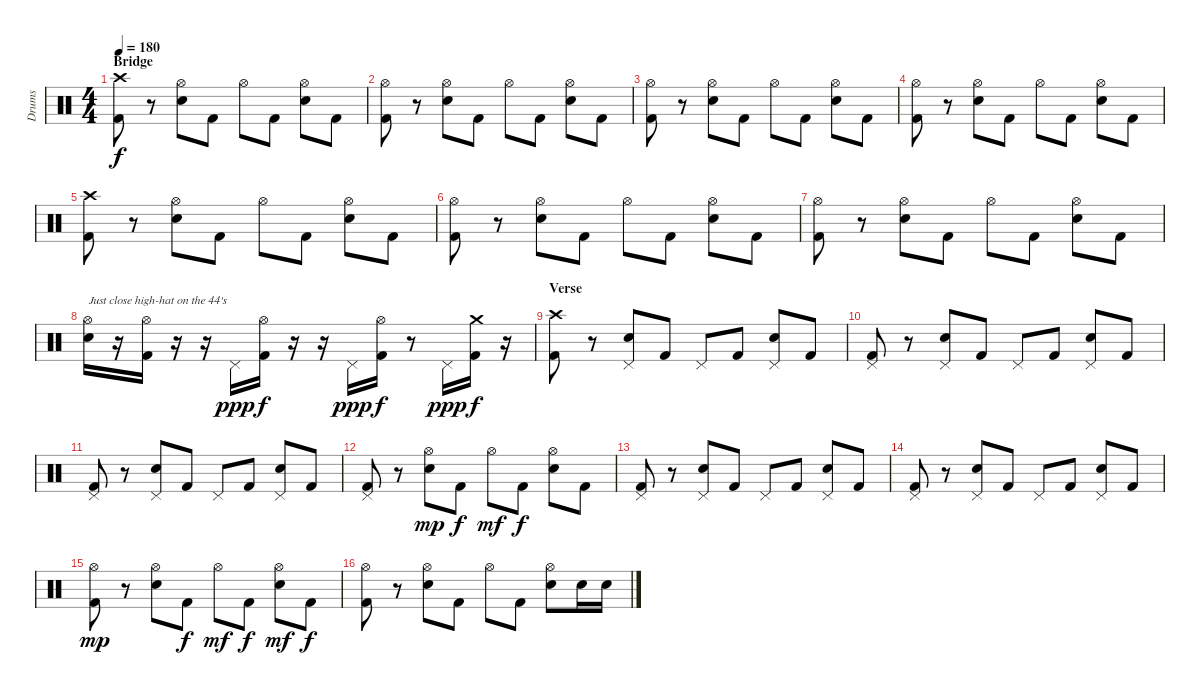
\track ("Drums" "Drums") {instrument percussion}
\staff {score}
\articulation defaults
\ts (4 4)
\section ("" "Bridge")
\tempo 180
\clef neutral
\ks c
("Crash high (hit)" "Kick (hit) 2").8{dy f} r.8 ("Hi-Hat (open)" "Electric Snare (hit)").8 "Kick (hit) 2".8 "Hi-Hat (open)".8 "Kick (hit) 2".8 ("Hi-Hat (open)" "Electric Snare (hit)").8 "Kick (hit) 2".8 |
("Hi-Hat (open)" "Kick (hit) 2").8 r.8 ("Hi-Hat (open)" "Electric Snare (hit)").8 "Kick (hit) 2".8 "Hi-Hat (open)".8 "Kick (hit) 2".8 ("Hi-Hat (open)" "Electric Snare (hit)").8 "Kick (hit) 2".8 |
("Hi-Hat (open)" "Kick (hit) 2").8 r.8 ("Hi-Hat (open)" "Electric Snare (hit)").8 "Kick (hit) 2".8 "Hi-Hat (open)".8 "Kick (hit) 2".8 ("Hi-Hat (open)" "Electric Snare (hit)").8 "Kick (hit) 2".8 |
("Hi-Hat (open)" "Kick (hit) 2").8 r.8 ("Hi-Hat (open)" "Electric Snare (hit)").8 "Kick (hit) 2".8 "Hi-Hat (open)".8 "Kick (hit) 2".8 ("Hi-Hat (open)" "Electric Snare (hit)").8 "Kick (hit) 2".8 |
("Crash high (hit)" "Kick (hit) 2").8 r.8 ("Hi-Hat (open)" "Electric Snare (hit)").8 "Kick (hit) 2".8 "Hi-Hat (open)".8 "Kick (hit) 2".8 ("Hi-Hat (open)" "Electric Snare (hit)").8 "Kick (hit) 2".8 |
("Hi-Hat (open)" "Kick (hit) 2").8 r.8 ("Hi-Hat (open)" "Electric Snare (hit)").8 "Kick (hit) 2".8 "Hi-Hat (open)".8 "Kick (hit) 2".8 ("Hi-Hat (open)" "Electric Snare (hit)").8 "Kick (hit) 2".8 |
("Hi-Hat (open)" "Kick (hit) 2").8 r.8 ("Hi-Hat (open)" "Electric Snare (hit)").8 "Kick (hit) 2".8 "Hi-Hat (open)".8 "Kick (hit) 2".8 ("Hi-Hat (open)" "Electric Snare (hit)").8 "Kick (hit) 2".8 |
("Hi-Hat (open)" "Electric Snare (hit)").16{txt "Just close high-hat on the 44's"} r.16 ("Hi-Hat (open)" "Kick (hit) 2").16 r.16 r.16 "Pedal Hi-Hat (hit)".16{dy ppp} ("Hi-Hat (open)" "Kick (hit) 2").16{dy f} r.16 r.16 "Pedal Hi-Hat (hit)".16{dy ppp} ("Hi-Hat (open)" "Kick (hit) 2").16{dy f} r.8 "Pedal Hi-Hat (hit)".16{dy ppp} ("Crash medium (hit)" "Kick (hit) 2").16{dy f} r.16 |
\section ("" "Verse")
("Crash high (hit)" "Kick (hit) 2").8 r.8 ("Pedal Hi-Hat (hit)" "Electric Snare (hit)").8 "Kick (hit) 2".8 "Pedal Hi-Hat (hit)".8 "Kick (hit) 2".8 ("Pedal Hi-Hat (hit)" "Electric Snare (hit)").8 "Kick (hit) 2".8 |
("Pedal Hi-Hat (hit)" "Kick (hit) 2").8 r.8 ("Pedal Hi-Hat (hit)" "Electric Snare (hit)").8 "Kick (hit) 2".8 "Pedal Hi-Hat (hit)".8 "Kick (hit) 2".8 ("Pedal Hi-Hat (hit)" "Electric Snare (hit)").8 "Kick (hit) 2".8 |
("Pedal Hi-Hat (hit)" "Kick (hit) 2").8 r.8 ("Pedal Hi-Hat (hit)" "Electric Snare (hit)").8 "Kick (hit) 2".8 "Pedal Hi-Hat (hit)".8 "Kick (hit) 2".8 ("Pedal Hi-Hat (hit)" "Electric Snare (hit)").8 "Kick (hit) 2".8 |
("Pedal Hi-Hat (hit)" "Kick (hit) 2").8 r.8 ("Hi-Hat (open)" "Electric Snare (hit)").8{dy mp} "Kick (hit) 2".8{dy f} "Hi-Hat (open)".8{dy mf} "Kick (hit) 2".8{dy f} ("Hi-Hat (open)" "Electric Snare (hit)").8 "Kick (hit) 2".8 |
("Pedal Hi-Hat (hit)" "Kick (hit) 2").8 r.8 ("Pedal Hi-Hat (hit)" "Electric Snare (hit)").8 "Kick (hit) 2".8 "Pedal Hi-Hat (hit)".8 "Kick (hit) 2".8 ("Pedal Hi-Hat (hit)" "Electric Snare (hit)").8 "Kick (hit) 2".8 |
("Pedal Hi-Hat (hit)" "Kick (hit) 2").8 r.8 ("Pedal Hi-Hat (hit)" "Electric Snare (hit)").8 "Kick (hit) 2".8 "Pedal Hi-Hat (hit)".8 "Kick (hit) 2".8 ("Pedal Hi-Hat (hit)" "Electric Snare (hit)").8 "Kick (hit) 2".8 |
("Hi-Hat (open)" "Kick (hit) 2").8{dy mp} r.8 ("Hi-Hat (open)" "Electric Snare (hit)").8 "Kick (hit) 2".8{dy f} "Hi-Hat (open)".8{dy mf} "Kick (hit) 2".8{dy f} ("Hi-Hat (open)" "Electric Snare (hit)").8{dy mf} "Kick (hit) 2".8{dy f} |
("Hi-Hat (open)" "Kick (hit) 2").8 r.8 ("Hi-Hat (open)" "Electric Snare (hit)").8 "Kick (hit) 2".8 "Hi-Hat (open)".8 "Kick (hit) 2".8 ("Hi-Hat (open)" "Electric Snare (hit)").8 "Electric Snare (hit)".16 "Electric Snare (hit)".16
